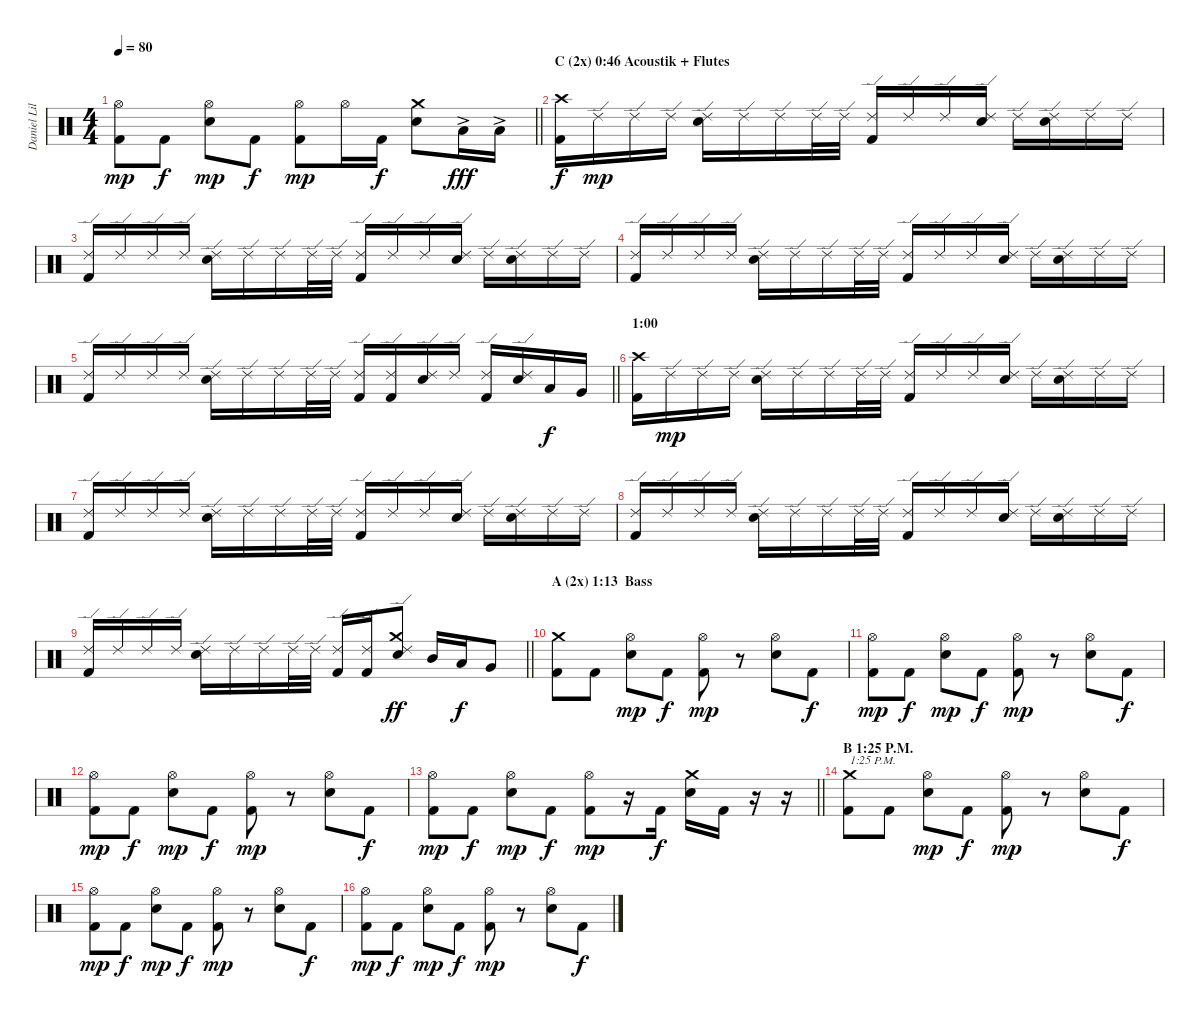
\track ("Daniel Liljekvist (Drums)" "Daniel Lil") {instrument percussion}
\staff {score}
\articulation defaults
\ts (4 4)
\tempo 80
\clef neutral
\barLineRight lightlight
\ks c
("Kick (hit) 2" "Hi-Hat (open)").8{dy mp} "Kick (hit) 2".8{dy f} ("Electric Snare (hit)" "Hi-Hat (open)").8{dy mp} "Kick (hit) 2".8{dy f} ("Kick (hit) 2" "Hi-Hat (open)").8{dy mp} "Hi-Hat (open)".16 "Kick (hit) 2".16{dy f} ("Electric Snare (hit)" "Crash medium (hit)").8 "Low Tom (hit)"{ac}.16{dy fff} "Low Tom (hit)"{ac}.16 |
\section ("" "C (2x) 0:46 Acoustik + Flutes")
("Kick (hit) 2" "Crash high (hit)").16{dy f} "Ride (edge) 2".16{dy mp} "Ride (edge) 2".16 "Ride (edge) 2".16 ("Electric Snare (hit)" "Ride (edge) 2").16 "Ride (edge) 2".16 "Ride (edge) 2".16 "Ride (edge) 2".32 "Ride (edge) 2".32 ("Kick (hit) 2" "Ride (edge) 2").16 "Ride (edge) 2".16 "Ride (edge) 2".16 ("Electric Snare (hit)" "Ride (edge) 2").16 "Ride (edge) 2".16 ("Electric Snare (hit)" "Ride (edge) 2").16 "Ride (edge) 2".16 "Ride (edge) 2".16 |
("Kick (hit) 2" "Ride (edge) 2").16 "Ride (edge) 2".16 "Ride (edge) 2".16 "Ride (edge) 2".16 ("Electric Snare (hit)" "Ride (edge) 2").16 "Ride (edge) 2".16 "Ride (edge) 2".16 "Ride (edge) 2".32 "Ride (edge) 2".32 ("Kick (hit) 2" "Ride (edge) 2").16 "Ride (edge) 2".16 "Ride (edge) 2".16 ("Electric Snare (hit)" "Ride (edge) 2").16 "Ride (edge) 2".16 ("Electric Snare (hit)" "Ride (edge) 2").16 "Ride (edge) 2".16 "Ride (edge) 2".16 |
("Kick (hit) 2" "Ride (edge) 2").16 "Ride (edge) 2".16 "Ride (edge) 2".16 "Ride (edge) 2".16 ("Electric Snare (hit)" "Ride (edge) 2").16 "Ride (edge) 2".16 "Ride (edge) 2".16 "Ride (edge) 2".32 "Ride (edge) 2".32 ("Kick (hit) 2" "Ride (edge) 2").16 "Ride (edge) 2".16 "Ride (edge) 2".16 ("Electric Snare (hit)" "Ride (edge) 2").16 "Ride (edge) 2".16 ("Electric Snare (hit)" "Ride (edge) 2").16 "Ride (edge) 2".16 "Ride (edge) 2".16 |
\barLineRight lightlight
("Kick (hit) 2" "Ride (edge) 2").16 "Ride (edge) 2".16 "Ride (edge) 2".16 "Ride (edge) 2".16 ("Electric Snare (hit)" "Ride (edge) 2").16 "Ride (edge) 2".16 "Ride (edge) 2".16 "Ride (edge) 2".32 "Ride (edge) 2".32 ("Kick (hit) 2" "Ride (edge) 2").16 ("Kick (hit) 2" "Ride (edge) 2").16 ("Electric Snare (hit)" "Ride (edge) 2").16 "Ride (edge) 2".16 ("Kick (hit) 2" "Ride (edge) 2").16 ("Electric Snare (hit)" "Ride (edge) 2").16 "Low Tom (hit)".16{dy f} "Very Low Tom (hit)".16 |
\section ("" "1:00")
("Kick (hit) 2" "Crash high (hit)").16 "Ride (edge) 2".16{dy mp} "Ride (edge) 2".16 "Ride (edge) 2".16 ("Electric Snare (hit)" "Ride (edge) 2").16 "Ride (edge) 2".16 "Ride (edge) 2".16 "Ride (edge) 2".32 "Ride (edge) 2".32 ("Kick (hit) 2" "Ride (edge) 2").16 "Ride (edge) 2".16 "Ride (edge) 2".16 ("Electric Snare (hit)" "Ride (edge) 2").16 "Ride (edge) 2".16 ("Electric Snare (hit)" "Ride (edge) 2").16 "Ride (edge) 2".16 "Ride (edge) 2".16 |
("Kick (hit) 2" "Ride (edge) 2").16 "Ride (edge) 2".16 "Ride (edge) 2".16 "Ride (edge) 2".16 ("Electric Snare (hit)" "Ride (edge) 2").16 "Ride (edge) 2".16 "Ride (edge) 2".16 "Ride (edge) 2".32 "Ride (edge) 2".32 ("Kick (hit) 2" "Ride (edge) 2").16 "Ride (edge) 2".16 "Ride (edge) 2".16 ("Electric Snare (hit)" "Ride (edge) 2").16 "Ride (edge) 2".16 ("Electric Snare (hit)" "Ride (edge) 2").16 "Ride (edge) 2".16 "Ride (edge) 2".16 |
("Kick (hit) 2" "Ride (edge) 2").16 "Ride (edge) 2".16 "Ride (edge) 2".16 "Ride (edge) 2".16 ("Electric Snare (hit)" "Ride (edge) 2").16 "Ride (edge) 2".16 "Ride (edge) 2".16 "Ride (edge) 2".32 "Ride (edge) 2".32 ("Kick (hit) 2" "Ride (edge) 2").16 "Ride (edge) 2".16 "Ride (edge) 2".16 ("Electric Snare (hit)" "Ride (edge) 2").16 "Ride (edge) 2".16 ("Electric Snare (hit)" "Ride (edge) 2").16 "Ride (edge) 2".16 "Ride (edge) 2".16 |
\barLineRight lightlight
("Kick (hit) 2" "Ride (edge) 2").16 "Ride (edge) 2".16 "Ride (edge) 2".16 "Ride (edge) 2".16 ("Electric Snare (hit)" "Ride (edge) 2").16 "Ride (edge) 2".16 "Ride (edge) 2".16 "Ride (edge) 2".32 "Ride (edge) 2".32 ("Kick (hit) 2" "Ride (edge) 2").16 ("Kick (hit) 2" "Ride (edge) 2").16 ("Electric Snare (hit)" "Ride (edge) 2" "Crash medium (hit)").8{dy ff} "Mid Tom (hit)".16 "Low Tom (hit)".16{dy f} "Very Low Tom (hit)".8 |
\section ("" "A (2x) 1:13  Bass")
("Kick (hit) 2" "Crash medium (hit)").8 "Kick (hit) 2".8 ("Electric Snare (hit)" "Hi-Hat (open)").8{dy mp} "Kick (hit) 2".8{dy f} ("Kick (hit) 2" "Hi-Hat (open)").8{dy mp} r.8 ("Electric Snare (hit)" "Hi-Hat (open)").8 "Kick (hit) 2".8{dy f} |
("Kick (hit) 2" "Hi-Hat (open)").8{dy mp} "Kick (hit) 2".8{dy f} ("Electric Snare (hit)" "Hi-Hat (open)").8{dy mp} "Kick (hit) 2".8{dy f} ("Kick (hit) 2" "Hi-Hat (open)").8{dy mp} r.8 ("Electric Snare (hit)" "Hi-Hat (open)").8 "Kick (hit) 2".8{dy f} |
("Kick (hit) 2" "Hi-Hat (open)").8{dy mp} "Kick (hit) 2".8{dy f} ("Electric Snare (hit)" "Hi-Hat (open)").8{dy mp} "Kick (hit) 2".8{dy f} ("Kick (hit) 2" "Hi-Hat (open)").8{dy mp} r.8 ("Electric Snare (hit)" "Hi-Hat (open)").8 "Kick (hit) 2".8{dy f} |
\barLineRight lightlight
("Kick (hit) 2" "Hi-Hat (open)").8{dy mp} "Kick (hit) 2".8{dy f} ("Electric Snare (hit)" "Hi-Hat (open)").8{dy mp} "Kick (hit) 2".8{dy f} ("Kick (hit) 2" "Hi-Hat (open)").8{dy mp} r.16 "Kick (hit) 2".16{dy f} ("Electric Snare (hit)" "Crash medium (hit)").16 "Kick (hit) 2".16 r.16 r.16 |
\section ("" "B 1:25 P.M.")
("Kick (hit) 2" "Crash medium (hit)").8{txt "1:25 P.M."} "Kick (hit) 2".8 ("Electric Snare (hit)" "Hi-Hat (open)").8{dy mp} "Kick (hit) 2".8{dy f} ("Kick (hit) 2" "Hi-Hat (open)").8{dy mp} r.8 ("Electric Snare (hit)" "Hi-Hat (open)").8 "Kick (hit) 2".8{dy f} |
("Kick (hit) 2" "Hi-Hat (open)").8{dy mp} "Kick (hit) 2".8{dy f} ("Electric Snare (hit)" "Hi-Hat (open)").8{dy mp} "Kick (hit) 2".8{dy f} ("Kick (hit) 2" "Hi-Hat (open)").8{dy mp} r.8 ("Electric Snare (hit)" "Hi-Hat (open)").8 "Kick (hit) 2".8{dy f} |
("Kick (hit) 2" "Hi-Hat (open)").8{dy mp} "Kick (hit) 2".8{dy f} ("Electric Snare (hit)" "Hi-Hat (open)").8{dy mp} "Kick (hit) 2".8{dy f} ("Kick (hit) 2" "Hi-Hat (open)").8{dy mp} r.8 ("Electric Snare (hit)" "Hi-Hat (open)").8 "Kick (hit) 2".8{dy f}
